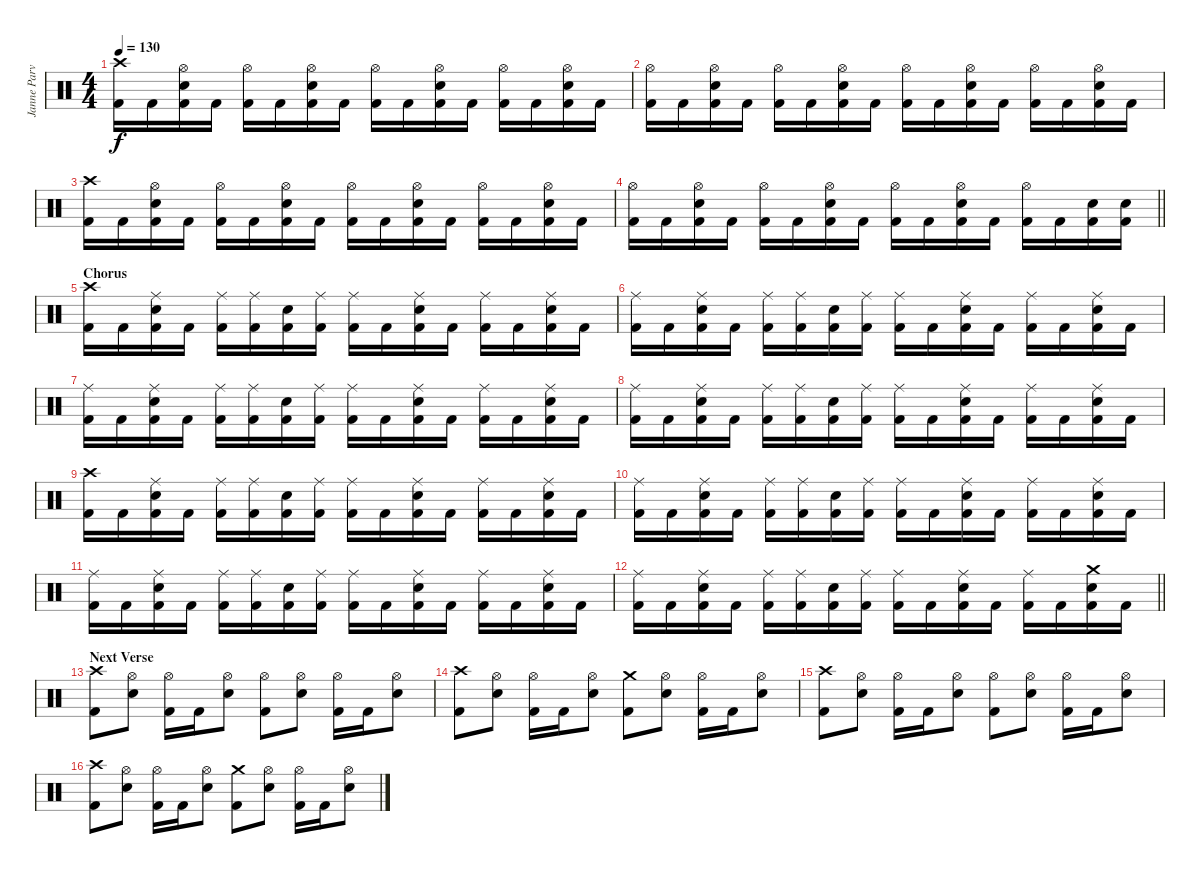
\track ("Janne Parviainen" "Janne Parv") {instrument percussion}
\staff {score}
\articulation defaults
\ts (4 4)
\tempo 130
\clef neutral
\ks c
("Crash high (hit)" "Kick (hit) 2").16{dy f} "Kick (hit) 2".16 ("Hi-Hat (open)" "Electric Snare (hit)" "Kick (hit) 2").16 "Kick (hit) 2".16 ("Hi-Hat (open)" "Kick (hit) 2").16 "Kick (hit) 2".16 ("Hi-Hat (open)" "Electric Snare (hit)" "Kick (hit) 2").16 "Kick (hit) 2".16 ("Hi-Hat (open)" "Kick (hit) 2").16 "Kick (hit) 2".16 ("Hi-Hat (open)" "Electric Snare (hit)" "Kick (hit) 2").16 "Kick (hit) 2".16 ("Hi-Hat (open)" "Kick (hit) 2").16 "Kick (hit) 2".16 ("Hi-Hat (open)" "Electric Snare (hit)" "Kick (hit) 2").16 "Kick (hit) 2".16 |
("Hi-Hat (open)" "Kick (hit) 2").16 "Kick (hit) 2".16 ("Hi-Hat (open)" "Electric Snare (hit)" "Kick (hit) 2").16 "Kick (hit) 2".16 ("Hi-Hat (open)" "Kick (hit) 2").16 "Kick (hit) 2".16 ("Hi-Hat (open)" "Electric Snare (hit)" "Kick (hit) 2").16 "Kick (hit) 2".16 ("Hi-Hat (open)" "Kick (hit) 2").16 "Kick (hit) 2".16 ("Hi-Hat (open)" "Electric Snare (hit)" "Kick (hit) 2").16 "Kick (hit) 2".16 ("Hi-Hat (open)" "Kick (hit) 2").16 "Kick (hit) 2".16 ("Hi-Hat (open)" "Electric Snare (hit)" "Kick (hit) 2").16 "Kick (hit) 2".16 |
("Crash high (hit)" "Kick (hit) 2").16 "Kick (hit) 2".16 ("Hi-Hat (open)" "Electric Snare (hit)" "Kick (hit) 2").16 "Kick (hit) 2".16 ("Hi-Hat (open)" "Kick (hit) 2").16 "Kick (hit) 2".16 ("Hi-Hat (open)" "Electric Snare (hit)" "Kick (hit) 2").16 "Kick (hit) 2".16 ("Hi-Hat (open)" "Kick (hit) 2").16 "Kick (hit) 2".16 ("Hi-Hat (open)" "Electric Snare (hit)" "Kick (hit) 2").16 "Kick (hit) 2".16 ("Hi-Hat (open)" "Kick (hit) 2").16 "Kick (hit) 2".16 ("Hi-Hat (open)" "Electric Snare (hit)" "Kick (hit) 2").16 "Kick (hit) 2".16 |
\barLineRight lightlight
("Hi-Hat (open)" "Kick (hit) 2").16 "Kick (hit) 2".16 ("Hi-Hat (open)" "Electric Snare (hit)" "Kick (hit) 2").16 "Kick (hit) 2".16 ("Hi-Hat (open)" "Kick (hit) 2").16 "Kick (hit) 2".16 ("Hi-Hat (open)" "Electric Snare (hit)" "Kick (hit) 2").16 "Kick (hit) 2".16 ("Hi-Hat (open)" "Kick (hit) 2").16 "Kick (hit) 2".16 ("Hi-Hat (open)" "Electric Snare (hit)" "Kick (hit) 2").16 "Kick (hit) 2".16 ("Hi-Hat (open)" "Kick (hit) 2").16 "Kick (hit) 2".16 ("Electric Snare (hit)" "Kick (hit) 2").16 ("Electric Snare (hit)" "Kick (hit) 2").16 |
\section ("" "Chorus")
("Crash high (hit)" "Kick (hit) 2").16 "Kick (hit) 2".16 ("Ride (middle)" "Electric Snare (hit)" "Kick (hit) 2").16 "Kick (hit) 2".16 ("Ride (middle)" "Kick (hit) 2").16 ("Ride (middle)" "Kick (hit) 2").16 ("Electric Snare (hit)" "Kick (hit) 2").16 ("Ride (middle)" "Kick (hit) 2").16 ("Ride (middle)" "Kick (hit) 2").16 "Kick (hit) 2".16 ("Ride (middle)" "Electric Snare (hit)" "Kick (hit) 2").16 "Kick (hit) 2".16 ("Ride (middle)" "Kick (hit) 2").16 "Kick (hit) 2".16 ("Ride (middle)" "Electric Snare (hit)" "Kick (hit) 2").16 "Kick (hit) 2".16 |
("Ride (middle)" "Kick (hit) 2").16 "Kick (hit) 2".16 ("Ride (middle)" "Electric Snare (hit)" "Kick (hit) 2").16 "Kick (hit) 2".16 ("Ride (middle)" "Kick (hit) 2").16 ("Ride (middle)" "Kick (hit) 2").16 ("Electric Snare (hit)" "Kick (hit) 2").16 ("Ride (middle)" "Kick (hit) 2").16 ("Ride (middle)" "Kick (hit) 2").16 "Kick (hit) 2".16 ("Ride (middle)" "Electric Snare (hit)" "Kick (hit) 2").16 "Kick (hit) 2".16 ("Ride (middle)" "Kick (hit) 2").16 "Kick (hit) 2".16 ("Ride (middle)" "Electric Snare (hit)" "Kick (hit) 2").16 "Kick (hit) 2".16 |
("Ride (middle)" "Kick (hit) 2").16 "Kick (hit) 2".16 ("Ride (middle)" "Electric Snare (hit)" "Kick (hit) 2").16 "Kick (hit) 2".16 ("Ride (middle)" "Kick (hit) 2").16 ("Ride (middle)" "Kick (hit) 2").16 ("Electric Snare (hit)" "Kick (hit) 2").16 ("Ride (middle)" "Kick (hit) 2").16 ("Ride (middle)" "Kick (hit) 2").16 "Kick (hit) 2".16 ("Ride (middle)" "Electric Snare (hit)" "Kick (hit) 2").16 "Kick (hit) 2".16 ("Ride (middle)" "Kick (hit) 2").16 "Kick (hit) 2".16 ("Ride (middle)" "Electric Snare (hit)" "Kick (hit) 2").16 "Kick (hit) 2".16 |
("Ride (middle)" "Kick (hit) 2").16 "Kick (hit) 2".16 ("Ride (middle)" "Electric Snare (hit)" "Kick (hit) 2").16 "Kick (hit) 2".16 ("Ride (middle)" "Kick (hit) 2").16 ("Ride (middle)" "Kick (hit) 2").16 ("Electric Snare (hit)" "Kick (hit) 2").16 ("Ride (middle)" "Kick (hit) 2").16 ("Ride (middle)" "Kick (hit) 2").16 "Kick (hit) 2".16 ("Ride (middle)" "Electric Snare (hit)" "Kick (hit) 2").16 "Kick (hit) 2".16 ("Ride (middle)" "Kick (hit) 2").16 "Kick (hit) 2".16 ("Ride (middle)" "Electric Snare (hit)" "Kick (hit) 2").16 "Kick (hit) 2".16 |
("Crash high (hit)" "Kick (hit) 2").16 "Kick (hit) 2".16 ("Ride (middle)" "Electric Snare (hit)" "Kick (hit) 2").16 "Kick (hit) 2".16 ("Ride (middle)" "Kick (hit) 2").16 ("Ride (middle)" "Kick (hit) 2").16 ("Electric Snare (hit)" "Kick (hit) 2").16 ("Ride (middle)" "Kick (hit) 2").16 ("Ride (middle)" "Kick (hit) 2").16 "Kick (hit) 2".16 ("Ride (middle)" "Electric Snare (hit)" "Kick (hit) 2").16 "Kick (hit) 2".16 ("Ride (middle)" "Kick (hit) 2").16 "Kick (hit) 2".16 ("Ride (middle)" "Electric Snare (hit)" "Kick (hit) 2").16 "Kick (hit) 2".16 |
("Ride (middle)" "Kick (hit) 2").16 "Kick (hit) 2".16 ("Ride (middle)" "Electric Snare (hit)" "Kick (hit) 2").16 "Kick (hit) 2".16 ("Ride (middle)" "Kick (hit) 2").16 ("Ride (middle)" "Kick (hit) 2").16 ("Electric Snare (hit)" "Kick (hit) 2").16 ("Ride (middle)" "Kick (hit) 2").16 ("Ride (middle)" "Kick (hit) 2").16 "Kick (hit) 2".16 ("Ride (middle)" "Electric Snare (hit)" "Kick (hit) 2").16 "Kick (hit) 2".16 ("Ride (middle)" "Kick (hit) 2").16 "Kick (hit) 2".16 ("Ride (middle)" "Electric Snare (hit)" "Kick (hit) 2").16 "Kick (hit) 2".16 |
("Ride (middle)" "Kick (hit) 2").16 "Kick (hit) 2".16 ("Ride (middle)" "Electric Snare (hit)" "Kick (hit) 2").16 "Kick (hit) 2".16 ("Ride (middle)" "Kick (hit) 2").16 ("Ride (middle)" "Kick (hit) 2").16 ("Electric Snare (hit)" "Kick (hit) 2").16 ("Ride (middle)" "Kick (hit) 2").16 ("Ride (middle)" "Kick (hit) 2").16 "Kick (hit) 2".16 ("Ride (middle)" "Electric Snare (hit)" "Kick (hit) 2").16 "Kick (hit) 2".16 ("Ride (middle)" "Kick (hit) 2").16 "Kick (hit) 2".16 ("Ride (middle)" "Electric Snare (hit)" "Kick (hit) 2").16 "Kick (hit) 2".16 |
\barLineRight lightlight
("Ride (middle)" "Kick (hit) 2").16 "Kick (hit) 2".16 ("Ride (middle)" "Electric Snare (hit)" "Kick (hit) 2").16 "Kick (hit) 2".16 ("Ride (middle)" "Kick (hit) 2").16 ("Ride (middle)" "Kick (hit) 2").16 ("Electric Snare (hit)" "Kick (hit) 2").16 ("Ride (middle)" "Kick (hit) 2").16 ("Ride (middle)" "Kick (hit) 2").16 "Kick (hit) 2".16 ("Ride (middle)" "Electric Snare (hit)" "Kick (hit) 2").16 "Kick (hit) 2".16 ("Ride (middle)" "Kick (hit) 2").16 "Kick (hit) 2".16 ("Crash medium (hit)" "Electric Snare (hit)" "Kick (hit) 2").16 "Kick (hit) 2".16 |
\section ("" "Next Verse ")
("Crash high (hit)" "Kick (hit) 2").8 ("Hi-Hat (open)" "Electric Snare (hit)").8 ("Hi-Hat (open)" "Kick (hit) 2").16 "Kick (hit) 2".16 ("Hi-Hat (open)" "Electric Snare (hit)").8 ("Hi-Hat (open)" "Kick (hit) 2").8 ("Hi-Hat (open)" "Electric Snare (hit)").8 ("Hi-Hat (open)" "Kick (hit) 2").16 "Kick (hit) 2".16 ("Hi-Hat (open)" "Electric Snare (hit)").8 |
("Crash high (hit)" "Kick (hit) 2").8 ("Hi-Hat (open)" "Electric Snare (hit)").8 ("Hi-Hat (open)" "Kick (hit) 2").16 "Kick (hit) 2".16 ("Hi-Hat (open)" "Electric Snare (hit)").8 ("Crash medium (hit)" "Kick (hit) 2").8 ("Hi-Hat (open)" "Electric Snare (hit)").8 ("Hi-Hat (open)" "Kick (hit) 2").16 "Kick (hit) 2".16 ("Hi-Hat (open)" "Electric Snare (hit)").8 |
("Crash high (hit)" "Kick (hit) 2").8 ("Hi-Hat (open)" "Electric Snare (hit)").8 ("Hi-Hat (open)" "Kick (hit) 2").16 "Kick (hit) 2".16 ("Hi-Hat (open)" "Electric Snare (hit)").8 ("Hi-Hat (open)" "Kick (hit) 2").8 ("Hi-Hat (open)" "Electric Snare (hit)").8 ("Hi-Hat (open)" "Kick (hit) 2").16 "Kick (hit) 2".16 ("Hi-Hat (open)" "Electric Snare (hit)").8 |
("Crash high (hit)" "Kick (hit) 2").8 ("Hi-Hat (open)" "Electric Snare (hit)").8 ("Hi-Hat (open)" "Kick (hit) 2").16 "Kick (hit) 2".16 ("Hi-Hat (open)" "Electric Snare (hit)").8 ("Crash medium (hit)" "Kick (hit) 2").8 ("Hi-Hat (open)" "Electric Snare (hit)").8 ("Hi-Hat (open)" "Kick (hit) 2").16 "Kick (hit) 2".16 ("Hi-Hat (open)" "Electric Snare (hit)").8
